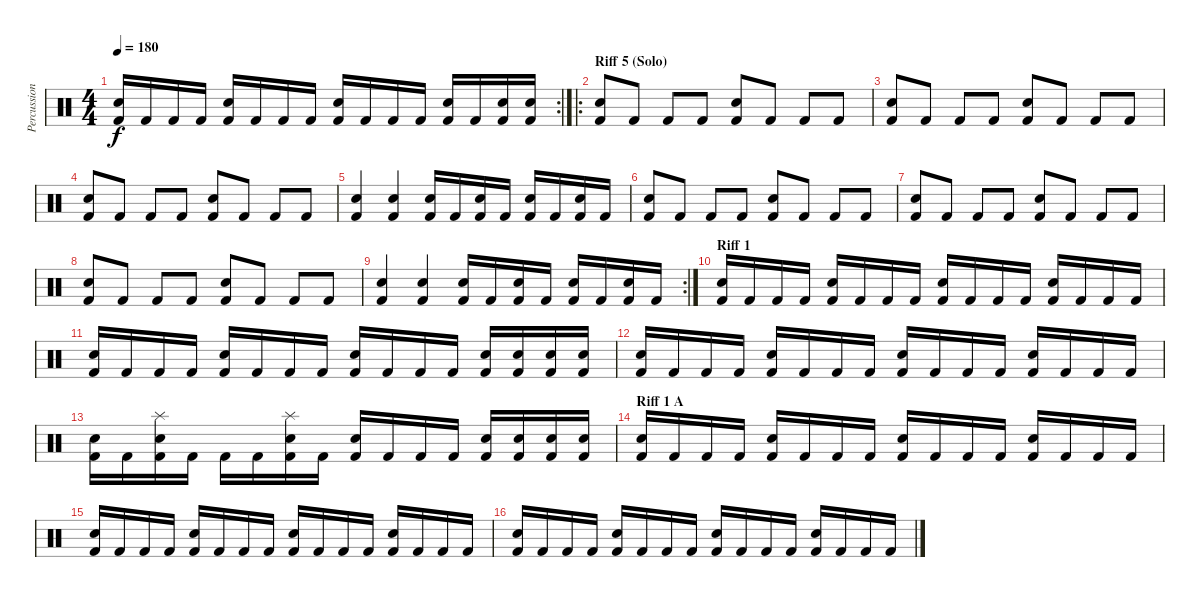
\track ("Percussion" "Percussion") {instrument percussion}
\staff {score}
\articulation defaults
\rc 2
\ts (4 4)
\tempo 180
\clef neutral
\ks c
("Snare (hit) 2" "Kick (hit) 2").16{dy f} "Kick (hit) 2".16 "Kick (hit) 2".16 "Kick (hit) 2".16 ("Snare (hit) 2" "Kick (hit) 2").16 "Kick (hit) 2".16 "Kick (hit) 2".16 "Kick (hit) 2".16 ("Snare (hit) 2" "Kick (hit) 2").16 "Kick (hit) 2".16 "Kick (hit) 2".16 "Kick (hit) 2".16 ("Snare (hit) 2" "Kick (hit) 2").16 "Kick (hit) 2".16 ("Snare (hit) 2" "Kick (hit) 2").16 ("Snare (hit) 2" "Kick (hit) 2").16 |
\ro
\section ("" "Riff 5 (Solo)")
("Electric Snare (hit)" "Kick (hit) 2").8 "Kick (hit) 2".8 "Kick (hit) 2".8 "Kick (hit) 2".8 ("Electric Snare (hit)" "Kick (hit) 2").8 "Kick (hit) 2".8 "Kick (hit) 2".8 "Kick (hit) 2".8 |
("Electric Snare (hit)" "Kick (hit) 2").8 "Kick (hit) 2".8 "Kick (hit) 2".8 "Kick (hit) 2".8 ("Electric Snare (hit)" "Kick (hit) 2").8 "Kick (hit) 2".8 "Kick (hit) 2".8 "Kick (hit) 2".8 |
("Electric Snare (hit)" "Kick (hit) 2").8 "Kick (hit) 2".8 "Kick (hit) 2".8 "Kick (hit) 2".8 ("Electric Snare (hit)" "Kick (hit) 2").8 "Kick (hit) 2".8 "Kick (hit) 2".8 "Kick (hit) 2".8 |
("Electric Snare (hit)" "Kick (hit) 2").4 ("Electric Snare (hit)" "Kick (hit) 2").4 ("Snare (hit) 2" "Kick (hit) 2").16 "Kick (hit) 2".16 ("Snare (hit) 2" "Kick (hit) 2").16 "Kick (hit) 2".16 ("Snare (hit) 2" "Kick (hit) 2").16 "Kick (hit) 2".16 ("Snare (hit) 2" "Kick (hit) 2").16 "Kick (hit) 2".16 |
("Electric Snare (hit)" "Kick (hit) 2").8 "Kick (hit) 2".8 "Kick (hit) 2".8 "Kick (hit) 2".8 ("Electric Snare (hit)" "Kick (hit) 2").8 "Kick (hit) 2".8 "Kick (hit) 2".8 "Kick (hit) 2".8 |
("Electric Snare (hit)" "Kick (hit) 2").8 "Kick (hit) 2".8 "Kick (hit) 2".8 "Kick (hit) 2".8 ("Electric Snare (hit)" "Kick (hit) 2").8 "Kick (hit) 2".8 "Kick (hit) 2".8 "Kick (hit) 2".8 |
("Electric Snare (hit)" "Kick (hit) 2").8 "Kick (hit) 2".8 "Kick (hit) 2".8 "Kick (hit) 2".8 ("Electric Snare (hit)" "Kick (hit) 2").8 "Kick (hit) 2".8 "Kick (hit) 2".8 "Kick (hit) 2".8 |
\rc 2
("Electric Snare (hit)" "Kick (hit) 2").4 ("Electric Snare (hit)" "Kick (hit) 2").4 ("Snare (hit) 2" "Kick (hit) 2").16 "Kick (hit) 2".16 ("Snare (hit) 2" "Kick (hit) 2").16 "Kick (hit) 2".16 ("Snare (hit) 2" "Kick (hit) 2").16 "Kick (hit) 2".16 ("Snare (hit) 2" "Kick (hit) 2").16 "Kick (hit) 2".16 |
\section ("" "Riff 1")
("Snare (hit) 2" "Kick (hit) 2").16 "Kick (hit) 2".16 "Kick (hit) 2".16 "Kick (hit) 2".16 ("Snare (hit) 2" "Kick (hit) 2").16 "Kick (hit) 2".16 "Kick (hit) 2".16 "Kick (hit) 2".16 ("Snare (hit) 2" "Kick (hit) 2").16 "Kick (hit) 2".16 "Kick (hit) 2".16 "Kick (hit) 2".16 ("Snare (hit) 2" "Kick (hit) 2").16 "Kick (hit) 2".16 "Kick (hit) 2".16 "Kick (hit) 2".16 |
("Snare (hit) 2" "Kick (hit) 2").16 "Kick (hit) 2".16 "Kick (hit) 2".16 "Kick (hit) 2".16 ("Snare (hit) 2" "Kick (hit) 2").16 "Kick (hit) 2".16 "Kick (hit) 2".16 "Kick (hit) 2".16 ("Snare (hit) 2" "Kick (hit) 2").16 "Kick (hit) 2".16 "Kick (hit) 2".16 "Kick (hit) 2".16 ("Snare (hit) 2" "Kick (hit) 2").16 ("Snare (hit) 2" "Kick (hit) 2").16 ("Snare (hit) 2" "Kick (hit) 2").16 ("Snare (hit) 2" "Kick (hit) 2").16 |
("Snare (hit) 2" "Kick (hit) 2").16 "Kick (hit) 2".16 "Kick (hit) 2".16 "Kick (hit) 2".16 ("Snare (hit) 2" "Kick (hit) 2").16 "Kick (hit) 2".16 "Kick (hit) 2".16 "Kick (hit) 2".16 ("Snare (hit) 2" "Kick (hit) 2").16 "Kick (hit) 2".16 "Kick (hit) 2".16 "Kick (hit) 2".16 ("Snare (hit) 2" "Kick (hit) 2").16 "Kick (hit) 2".16 "Kick (hit) 2".16 "Kick (hit) 2".16 |
("Snare (hit) 2" "Kick (hit) 2").16 "Kick (hit) 2".16 ("Snare (hit) 2" "Splash (hit)" "Kick (hit) 2").16 "Kick (hit) 2".16 "Kick (hit) 2".16 "Kick (hit) 2".16 ("Snare (hit) 2" "Splash (hit)" "Kick (hit) 2").16 "Kick (hit) 2".16 ("Snare (hit) 2" "Kick (hit) 2").16 "Kick (hit) 2".16 "Kick (hit) 2".16 "Kick (hit) 2".16 ("Snare (hit) 2" "Kick (hit) 2").16 ("Snare (hit) 2" "Kick (hit) 2").16 ("Snare (hit) 2" "Kick (hit) 2").16 ("Snare (hit) 2" "Kick (hit) 2").16 |
\section ("" "Riff 1 A")
("Snare (hit) 2" "Kick (hit) 2").16 "Kick (hit) 2".16 "Kick (hit) 2".16 "Kick (hit) 2".16 ("Snare (hit) 2" "Kick (hit) 2").16 "Kick (hit) 2".16 "Kick (hit) 2".16 "Kick (hit) 2".16 ("Snare (hit) 2" "Kick (hit) 2").16 "Kick (hit) 2".16 "Kick (hit) 2".16 "Kick (hit) 2".16 ("Snare (hit) 2" "Kick (hit) 2").16 "Kick (hit) 2".16 "Kick (hit) 2".16 "Kick (hit) 2".16 |
("Snare (hit) 2" "Kick (hit) 2").16 "Kick (hit) 2".16 "Kick (hit) 2".16 "Kick (hit) 2".16 ("Snare (hit) 2" "Kick (hit) 2").16 "Kick (hit) 2".16 "Kick (hit) 2".16 "Kick (hit) 2".16 ("Snare (hit) 2" "Kick (hit) 2").16 "Kick (hit) 2".16 "Kick (hit) 2".16 "Kick (hit) 2".16 ("Snare (hit) 2" "Kick (hit) 2").16 "Kick (hit) 2".16 "Kick (hit) 2".16 "Kick (hit) 2".16 |
("Snare (hit) 2" "Kick (hit) 2").16 "Kick (hit) 2".16 "Kick (hit) 2".16 "Kick (hit) 2".16 ("Snare (hit) 2" "Kick (hit) 2").16 "Kick (hit) 2".16 "Kick (hit) 2".16 "Kick (hit) 2".16 ("Snare (hit) 2" "Kick (hit) 2").16 "Kick (hit) 2".16 "Kick (hit) 2".16 "Kick (hit) 2".16 ("Snare (hit) 2" "Kick (hit) 2").16 "Kick (hit) 2".16 "Kick (hit) 2".16 "Kick (hit) 2".16
